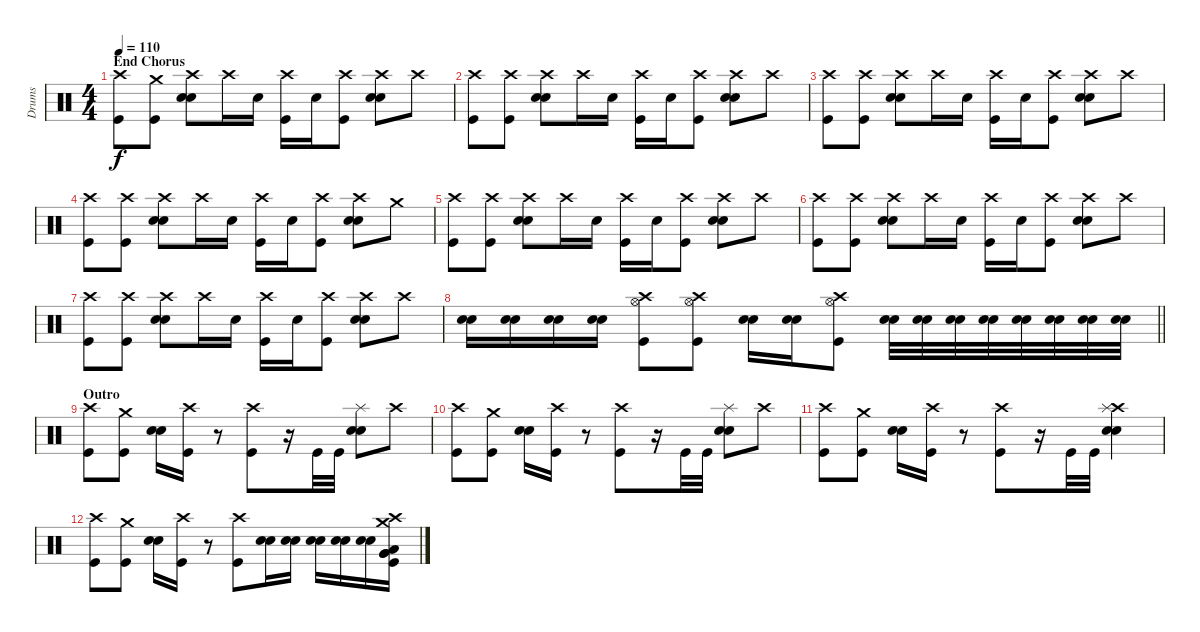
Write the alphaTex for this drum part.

\track ("Drums" "Drums") {instrument percussion}
\staff {score}
\articulation defaults
\ts (4 4)
\section ("" "End Chorus")
\tempo 110
\clef neutral
\ks c
("Crash high (hit)" "Kick (hit)").8{dy f} ("Crash medium (hit)" "Kick (hit)").8 ("Crash high (hit)" "Electric Snare (hit)" "Snare (hit) 2").8 "Crash high (hit)".16 "Electric Snare (hit)".16 ("Crash high (hit)" "Kick (hit)").16 "Electric Snare (hit)".16 ("Crash high (hit)" "Kick (hit)").8 ("Crash high (hit)" "Electric Snare (hit)" "Snare (hit) 2").8 "Crash high (hit)".8 |
("Crash high (hit)" "Kick (hit)").8 ("Crash high (hit)" "Kick (hit)").8 ("Crash high (hit)" "Electric Snare (hit)" "Snare (hit) 2").8 "Crash high (hit)".16 "Electric Snare (hit)".16 ("Crash high (hit)" "Kick (hit)").16 "Electric Snare (hit)".16 ("Crash high (hit)" "Kick (hit)").8 ("Crash high (hit)" "Electric Snare (hit)" "Snare (hit) 2").8 "Crash high (hit)".8 |
("Crash high (hit)" "Kick (hit)").8 ("Crash high (hit)" "Kick (hit)").8 ("Crash high (hit)" "Electric Snare (hit)" "Snare (hit) 2").8 "Crash high (hit)".16 "Electric Snare (hit)".16 ("Crash high (hit)" "Kick (hit)").16 "Electric Snare (hit)".16 ("Crash high (hit)" "Kick (hit)").8 ("Crash high (hit)" "Electric Snare (hit)" "Snare (hit) 2").8 "Crash high (hit)".8 |
("Crash high (hit)" "Kick (hit)").8 ("Crash high (hit)" "Kick (hit)").8 ("Crash high (hit)" "Electric Snare (hit)" "Snare (hit) 2").8 "Crash high (hit)".16 "Electric Snare (hit)".16 ("Crash high (hit)" "Kick (hit)").16 "Electric Snare (hit)".16 ("Crash high (hit)" "Kick (hit)").8 ("Crash high (hit)" "Electric Snare (hit)" "Snare (hit) 2").8 "Crash medium (hit)".8 |
("Crash high (hit)" "Kick (hit)").8 ("Crash high (hit)" "Kick (hit)").8 ("Crash high (hit)" "Electric Snare (hit)" "Snare (hit) 2").8 "Crash high (hit)".16 "Electric Snare (hit)".16 ("Crash high (hit)" "Kick (hit)").16 "Electric Snare (hit)".16 ("Crash high (hit)" "Kick (hit)").8 ("Crash high (hit)" "Electric Snare (hit)" "Snare (hit) 2").8 "Crash high (hit)".8 |
("Crash high (hit)" "Kick (hit)").8 ("Crash high (hit)" "Kick (hit)").8 ("Crash high (hit)" "Electric Snare (hit)" "Snare (hit) 2").8 "Crash high (hit)".16 "Electric Snare (hit)".16 ("Crash high (hit)" "Kick (hit)").16 "Electric Snare (hit)".16 ("Crash high (hit)" "Kick (hit)").8 ("Crash high (hit)" "Electric Snare (hit)" "Snare (hit) 2").8 "Crash high (hit)".8 |
("Crash high (hit)" "Kick (hit)").8 ("Crash high (hit)" "Kick (hit)").8 ("Crash high (hit)" "Electric Snare (hit)" "Snare (hit) 2").8 "Crash high (hit)".16 "Electric Snare (hit)".16 ("Crash high (hit)" "Kick (hit)").16 "Electric Snare (hit)".16 ("Crash high (hit)" "Kick (hit)").8 ("Crash high (hit)" "Electric Snare (hit)" "Snare (hit) 2").8 "Crash high (hit)".8 |
\barLineRight lightlight
("Electric Snare (hit)" "Snare (hit) 2").16 ("Electric Snare (hit)" "Snare (hit) 2").16 ("Electric Snare (hit)" "Snare (hit) 2").16 ("Electric Snare (hit)" "Snare (hit) 2").16 ("Crash high (hit)" "Hi-Hat (open)" "Kick (hit)").8 ("Crash high (hit)" "Hi-Hat (open)" "Kick (hit)").8 ("Electric Snare (hit)" "Snare (hit) 2").16 ("Electric Snare (hit)" "Snare (hit) 2").16 ("Crash high (hit)" "Hi-Hat (open)" "Kick (hit)").8 ("Electric Snare (hit)" "Snare (hit) 2").32 ("Electric Snare (hit)" "Snare (hit) 2").32 ("Electric Snare (hit)" "Snare (hit) 2").32 ("Electric Snare (hit)" "Snare (hit) 2").32 ("Electric Snare (hit)" "Snare (hit) 2").32 ("Electric Snare (hit)" "Snare (hit) 2").32 ("Electric Snare (hit)" "Snare (hit) 2").32 ("Electric Snare (hit)" "Snare (hit) 2").32 |
\section ("" "Outro")
("Crash high (hit)" "Kick (hit)").8 ("Crash medium (hit)" "Kick (hit)").8 ("Electric Snare (hit)" "Snare (hit) 2").16 ("Crash high (hit)" "Kick (hit)").16 r.8 ("Crash high (hit)" "Kick (hit)").8 r.16 "Kick (hit)".32 "Kick (hit)".32 ("Splash (hit)" "Electric Snare (hit)" "Snare (hit) 2").8 "Crash high (hit)".8 |
("Crash high (hit)" "Kick (hit)").8 ("Crash medium (hit)" "Kick (hit)").8 ("Electric Snare (hit)" "Snare (hit) 2").16 ("Crash high (hit)" "Kick (hit)").16 r.8 ("Crash high (hit)" "Kick (hit)").8 r.16 "Kick (hit)".32 "Kick (hit)".32 ("Splash (hit)" "Electric Snare (hit)" "Snare (hit) 2").8 "Crash high (hit)".8 |
("Crash high (hit)" "Kick (hit)").8 ("Crash medium (hit)" "Kick (hit)").8 ("Electric Snare (hit)" "Snare (hit) 2").16 ("Crash high (hit)" "Kick (hit)").16 r.8 ("Crash high (hit)" "Kick (hit)").8 r.16 "Kick (hit)".32 "Kick (hit)".32 ("Crash high (hit)" "Splash (hit)" "Electric Snare (hit)" "Snare (hit) 2").4 |
("Crash high (hit)" "Kick (hit)").8 ("Crash medium (hit)" "Kick (hit)").8 ("Electric Snare (hit)" "Snare (hit) 2").16 ("Crash high (hit)" "Kick (hit)").16 r.8 ("Crash high (hit)" "Kick (hit)").8 ("Electric Snare (hit)" "Snare (hit) 2").16 ("Electric Snare (hit)" "Snare (hit) 2").16 ("Electric Snare (hit)" "Snare (hit) 2").16 ("Electric Snare (hit)" "Snare (hit) 2").16 ("Electric Snare (hit)" "Snare (hit) 2").16 ("Crash medium (hit)" "Crash high (hit)" "Low Tom (hit)" "Very Low Tom (hit)" "Very Low Tom (hit)" "Kick (hit)").16
